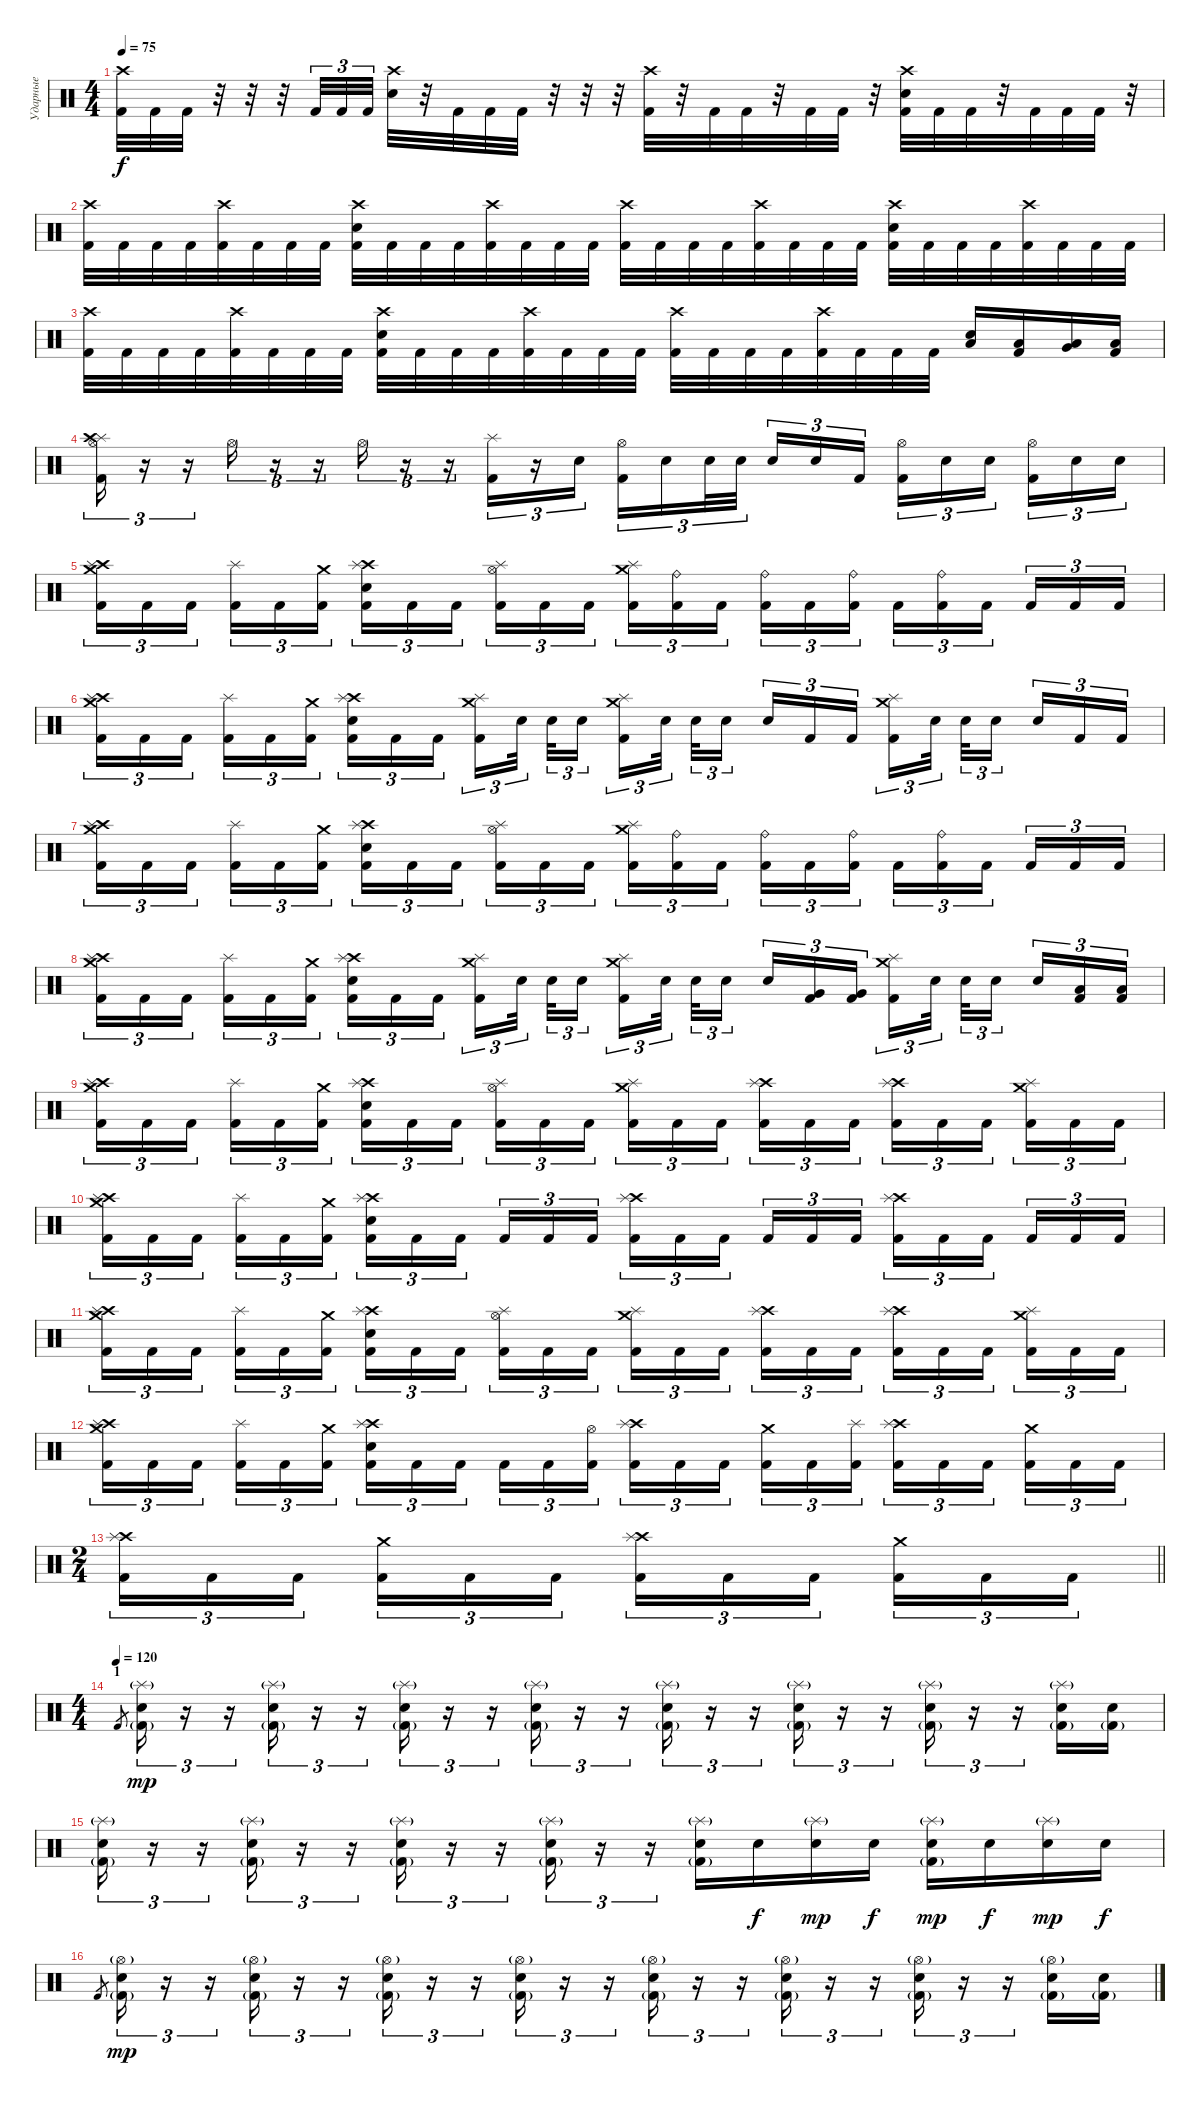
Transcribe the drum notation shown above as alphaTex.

\track ("Ударные" "Ударные") {instrument percussion}
\staff {score}
\articulation defaults
\ts (4 4)
\tempo 75
\clef neutral
\ks c
("Crash high (hit)" "Kick (hit) 2").32{dy f} "Kick (hit) 2".32 "Kick (hit) 2".32 r.32 r.32 r.32 "Kick (hit) 2".32{tu (3 2)} "Kick (hit) 2".32{tu (3 2)} "Kick (hit) 2".32{tu (3 2)} ("Crash high (hit)" "Electric Snare (hit)").32 r.32 "Kick (hit) 2".32 "Kick (hit) 2".32 "Kick (hit) 2".32 r.32 r.32 r.32 ("Crash high (hit)" "Kick (hit) 2").32 r.32 "Kick (hit) 2".32 "Kick (hit) 2".32 r.32 "Kick (hit) 2".32 "Kick (hit) 2".32 r.32 ("Crash high (hit)" "Electric Snare (hit)" "Kick (hit) 2").32 "Kick (hit) 2".32 "Kick (hit) 2".32 r.32 "Kick (hit) 2".32 "Kick (hit) 2".32 "Kick (hit) 2".32 r.32 |
("Crash high (hit)" "Kick (hit) 2").32 "Kick (hit) 2".32 "Kick (hit) 2".32 "Kick (hit) 2".32 ("Crash high (hit)" "Kick (hit) 2").32 "Kick (hit) 2".32 "Kick (hit) 2".32 "Kick (hit) 2".32 ("Crash high (hit)" "Electric Snare (hit)" "Kick (hit) 2").32 "Kick (hit) 2".32 "Kick (hit) 2".32 "Kick (hit) 2".32 ("Crash high (hit)" "Kick (hit) 2").32 "Kick (hit) 2".32 "Kick (hit) 2".32 "Kick (hit) 2".32 ("Crash high (hit)" "Kick (hit) 2").32 "Kick (hit) 2".32 "Kick (hit) 2".32 "Kick (hit) 2".32 ("Crash high (hit)" "Kick (hit) 2").32 "Kick (hit) 2".32 "Kick (hit) 2".32 "Kick (hit) 2".32 ("Crash high (hit)" "Electric Snare (hit)" "Kick (hit) 2").32 "Kick (hit) 2".32 "Kick (hit) 2".32 "Kick (hit) 2".32 ("Crash high (hit)" "Kick (hit) 2").32 "Kick (hit) 2".32 "Kick (hit) 2".32 "Kick (hit) 2".32 |
("Crash high (hit)" "Kick (hit) 2").32 "Kick (hit) 2".32 "Kick (hit) 2".32 "Kick (hit) 2".32 ("Crash high (hit)" "Kick (hit) 2").32 "Kick (hit) 2".32 "Kick (hit) 2".32 "Kick (hit) 2".32 ("Crash high (hit)" "Electric Snare (hit)" "Kick (hit) 2").32 "Kick (hit) 2".32 "Kick (hit) 2".32 "Kick (hit) 2".32 ("Crash high (hit)" "Kick (hit) 2").32 "Kick (hit) 2".32 "Kick (hit) 2".32 "Kick (hit) 2".32 ("Crash high (hit)" "Kick (hit) 2").32 "Kick (hit) 2".32 "Kick (hit) 2".32 "Kick (hit) 2".32 ("Crash high (hit)" "Kick (hit) 2").32 "Kick (hit) 2".32 "Kick (hit) 2".32 "Kick (hit) 2".32 ("Low Tom (hit)" "Electric Snare (hit)").16 ("Low Tom (hit)" "Kick (hit) 2").16 ("Very Low Tom (hit)" "Low Floor Tom (hit)").16 ("Low Floor Tom (hit)" "Kick (hit) 2").16 |
("Splash (hit)" "Crash high (hit)" "Hi-Hat (open)" "Kick (hit) 2").16{tu (3 2)} r.16{tu (3 2)} r.16{tu (3 2)} "Hi-Hat (open)".16{tu (3 2)} r.16{tu (3 2)} r.16{tu (3 2)} "Hi-Hat (open)".16{tu (3 2)} r.16{tu (3 2)} r.16{tu (3 2)} ("Splash (hit)" "Kick (hit) 2").16{tu (3 2)} r.16{tu (3 2)} "Electric Snare (hit)".16{tu (3 2)} ("Hi-Hat (open)" "Kick (hit) 2").16{tu (3 2)} "Electric Snare (hit)".16{tu (3 2)} "Electric Snare (hit)".32{tu (3 2)} "Electric Snare (hit)".32{tu (3 2) beam splitsecondary} "Electric Snare (hit)".16{tu (3 2)} "Electric Snare (hit)".16{tu (3 2)} "Kick (hit) 2".16{tu (3 2)} ("Hi-Hat (open)" "Kick (hit) 2").16{tu (3 2)} "Electric Snare (hit)".16{tu (3 2)} "Electric Snare (hit)".16{tu (3 2) beam splitsecondary} ("Hi-Hat (open)" "Kick (hit) 2").16{tu (3 2)} "Electric Snare (hit)".16{tu (3 2)} "Electric Snare (hit)".16{tu (3 2)} |
("Crash high (hit)" "Splash (hit)" "Crash medium (hit)" "Kick (hit) 2").16{tu (3 2)} "Kick (hit) 2".16{tu (3 2)} "Kick (hit) 2".16{tu (3 2) beam splitsecondary} ("Splash (hit)" "Kick (hit) 2").16{tu (3 2)} "Kick (hit) 2".16{tu (3 2)} ("Crash medium (hit)" "Kick (hit) 2").16{tu (3 2)} ("Crash high (hit)" "Splash (hit)" "Electric Snare (hit)" "Kick (hit) 2").16{tu (3 2)} "Kick (hit) 2".16{tu (3 2)} "Kick (hit) 2".16{tu (3 2) beam splitsecondary} ("Hi-Hat (open)" "Splash (hit)" "Kick (hit) 2").16{tu (3 2)} "Kick (hit) 2".16{tu (3 2)} "Kick (hit) 2".16{tu (3 2)} ("Splash (hit)" "Crash medium (hit)" "Kick (hit) 2").16{tu (3 2)} ("Ride (bell)" "Kick (hit) 2").16{tu (3 2)} "Kick (hit) 2".16{tu (3 2) beam splitsecondary} ("Ride (bell)" "Kick (hit) 2").16{tu (3 2)} "Kick (hit) 2".16{tu (3 2)} ("Ride (bell)" "Kick (hit) 2").16{tu (3 2)} "Kick (hit) 2".16{tu (3 2)} ("Ride (bell)" "Kick (hit) 2").16{tu (3 2)} "Kick (hit) 2".16{tu (3 2) beam splitsecondary} "Kick (hit) 2".16{tu (3 2)} "Kick (hit) 2".16{tu (3 2)} "Kick (hit) 2".16{tu (3 2)} |
("Crash high (hit)" "Splash (hit)" "Crash medium (hit)" "Kick (hit) 2").16{tu (3 2)} "Kick (hit) 2".16{tu (3 2)} "Kick (hit) 2".16{tu (3 2) beam splitsecondary} ("Splash (hit)" "Kick (hit) 2").16{tu (3 2)} "Kick (hit) 2".16{tu (3 2)} ("Crash medium (hit)" "Kick (hit) 2").16{tu (3 2)} ("Crash high (hit)" "Splash (hit)" "Electric Snare (hit)" "Kick (hit) 2").16{tu (3 2)} "Kick (hit) 2".16{tu (3 2)} "Kick (hit) 2".16{tu (3 2) beam splitsecondary} ("Crash medium (hit)" "Splash (hit)" "Kick (hit) 2").16{tu (3 2)} "Electric Snare (hit)".32{tu (3 2) beam splitsecondary} "Electric Snare (hit)".32{tu (3 2)} "Electric Snare (hit)".16{tu (3 2)} ("Splash (hit)" "Crash medium (hit)" "Kick (hit) 2").16{tu (3 2)} "Electric Snare (hit)".32{tu (3 2) beam splitsecondary} "Electric Snare (hit)".32{tu (3 2)} "Electric Snare (hit)".16{tu (3 2) beam splitsecondary} "Electric Snare (hit)".16{tu (3 2)} "Kick (hit) 2".16{tu (3 2)} "Kick (hit) 2".16{tu (3 2)} ("Splash (hit)" "Crash medium (hit)" "Kick (hit) 2").16{tu (3 2)} "Electric Snare (hit)".32{tu (3 2) beam splitsecondary} "Electric Snare (hit)".32{tu (3 2)} "Electric Snare (hit)".16{tu (3 2) beam splitsecondary} "Electric Snare (hit)".16{tu (3 2)} "Kick (hit) 2".16{tu (3 2)} "Kick (hit) 2".16{tu (3 2)} |
("Crash high (hit)" "Splash (hit)" "Crash medium (hit)" "Kick (hit) 2").16{tu (3 2)} "Kick (hit) 2".16{tu (3 2)} "Kick (hit) 2".16{tu (3 2) beam splitsecondary} ("Splash (hit)" "Kick (hit) 2").16{tu (3 2)} "Kick (hit) 2".16{tu (3 2)} ("Crash medium (hit)" "Kick (hit) 2").16{tu (3 2)} ("Crash high (hit)" "Splash (hit)" "Electric Snare (hit)" "Kick (hit) 2").16{tu (3 2)} "Kick (hit) 2".16{tu (3 2)} "Kick (hit) 2".16{tu (3 2) beam splitsecondary} ("Hi-Hat (open)" "Splash (hit)" "Kick (hit) 2").16{tu (3 2)} "Kick (hit) 2".16{tu (3 2)} "Kick (hit) 2".16{tu (3 2)} ("Splash (hit)" "Crash medium (hit)" "Kick (hit) 2").16{tu (3 2)} ("Ride (bell)" "Kick (hit) 2").16{tu (3 2)} "Kick (hit) 2".16{tu (3 2) beam splitsecondary} ("Ride (bell)" "Kick (hit) 2").16{tu (3 2)} "Kick (hit) 2".16{tu (3 2)} ("Ride (bell)" "Kick (hit) 2").16{tu (3 2)} "Kick (hit) 2".16{tu (3 2)} ("Ride (bell)" "Kick (hit) 2").16{tu (3 2)} "Kick (hit) 2".16{tu (3 2) beam splitsecondary} "Kick (hit) 2".16{tu (3 2)} "Kick (hit) 2".16{tu (3 2)} "Kick (hit) 2".16{tu (3 2)} |
("Crash high (hit)" "Splash (hit)" "Crash medium (hit)" "Kick (hit) 2").16{tu (3 2)} "Kick (hit) 2".16{tu (3 2)} "Kick (hit) 2".16{tu (3 2) beam splitsecondary} ("Splash (hit)" "Kick (hit) 2").16{tu (3 2)} "Kick (hit) 2".16{tu (3 2)} ("Crash medium (hit)" "Kick (hit) 2").16{tu (3 2)} ("Crash high (hit)" "Splash (hit)" "Electric Snare (hit)" "Kick (hit) 2").16{tu (3 2)} "Kick (hit) 2".16{tu (3 2)} "Kick (hit) 2".16{tu (3 2) beam splitsecondary} ("Crash medium (hit)" "Splash (hit)" "Kick (hit) 2").16{tu (3 2)} "Electric Snare (hit)".32{tu (3 2) beam splitsecondary} "Electric Snare (hit)".32{tu (3 2)} "Electric Snare (hit)".16{tu (3 2)} ("Splash (hit)" "Crash medium (hit)" "Kick (hit) 2").16{tu (3 2)} "Electric Snare (hit)".32{tu (3 2) beam splitsecondary} "Electric Snare (hit)".32{tu (3 2)} "Electric Snare (hit)".16{tu (3 2) beam splitsecondary} "Electric Snare (hit)".16{tu (3 2)} ("Kick (hit) 2" "Very Low Tom (hit)").16{tu (3 2)} ("Kick (hit) 2" "Very Low Tom (hit)").16{tu (3 2)} ("Splash (hit)" "Crash medium (hit)" "Kick (hit) 2").16{tu (3 2)} "Electric Snare (hit)".32{tu (3 2) beam splitsecondary} "Electric Snare (hit)".32{tu (3 2)} "Electric Snare (hit)".16{tu (3 2) beam splitsecondary} "Electric Snare (hit)".16{tu (3 2)} ("Low Floor Tom (hit)" "Kick (hit) 2").16{tu (3 2)} ("Low Floor Tom (hit)" "Kick (hit) 2").16{tu (3 2)} |
("Crash high (hit)" "Splash (hit)" "Crash medium (hit)" "Kick (hit) 2").16{tu (3 2)} "Kick (hit) 2".16{tu (3 2)} "Kick (hit) 2".16{tu (3 2) beam splitsecondary} ("Splash (hit)" "Kick (hit) 2").16{tu (3 2)} "Kick (hit) 2".16{tu (3 2)} ("Crash medium (hit)" "Kick (hit) 2").16{tu (3 2)} ("Crash high (hit)" "Splash (hit)" "Electric Snare (hit)" "Kick (hit) 2").16{tu (3 2)} "Kick (hit) 2".16{tu (3 2)} "Kick (hit) 2".16{tu (3 2) beam splitsecondary} ("Hi-Hat (open)" "Splash (hit)" "Kick (hit) 2").16{tu (3 2)} "Kick (hit) 2".16{tu (3 2)} "Kick (hit) 2".16{tu (3 2)} ("Splash (hit)" "Crash medium (hit)" "Kick (hit) 2").16{tu (3 2)} "Kick (hit) 2".16{tu (3 2)} "Kick (hit) 2".16{tu (3 2) beam splitsecondary} ("Crash high (hit)" "Splash (hit)" "Kick (hit) 2").16{tu (3 2)} "Kick (hit) 2".16{tu (3 2)} "Kick (hit) 2".16{tu (3 2)} ("Crash high (hit)" "Splash (hit)" "Kick (hit) 2").16{tu (3 2)} "Kick (hit) 2".16{tu (3 2)} "Kick (hit) 2".16{tu (3 2) beam splitsecondary} ("Splash (hit)" "Crash medium (hit)" "Kick (hit) 2").16{tu (3 2)} "Kick (hit) 2".16{tu (3 2)} "Kick (hit) 2".16{tu (3 2)} |
("Crash high (hit)" "Splash (hit)" "Crash medium (hit)" "Kick (hit) 2").16{tu (3 2)} "Kick (hit) 2".16{tu (3 2)} "Kick (hit) 2".16{tu (3 2) beam splitsecondary} ("Splash (hit)" "Kick (hit) 2").16{tu (3 2)} "Kick (hit) 2".16{tu (3 2)} ("Crash medium (hit)" "Kick (hit) 2").16{tu (3 2)} ("Crash high (hit)" "Splash (hit)" "Electric Snare (hit)" "Kick (hit) 2").16{tu (3 2)} "Kick (hit) 2".16{tu (3 2)} "Kick (hit) 2".16{tu (3 2) beam splitsecondary} "Kick (hit) 2".16{tu (3 2)} "Kick (hit) 2".16{tu (3 2)} "Kick (hit) 2".16{tu (3 2)} ("Crash high (hit)" "Splash (hit)" "Kick (hit) 2").16{tu (3 2)} "Kick (hit) 2".16{tu (3 2)} "Kick (hit) 2".16{tu (3 2) beam splitsecondary} "Kick (hit) 2".16{tu (3 2)} "Kick (hit) 2".16{tu (3 2)} "Kick (hit) 2".16{tu (3 2)} ("Crash high (hit)" "Splash (hit)" "Kick (hit) 2").16{tu (3 2)} "Kick (hit) 2".16{tu (3 2)} "Kick (hit) 2".16{tu (3 2) beam splitsecondary} "Kick (hit) 2".16{tu (3 2)} "Kick (hit) 2".16{tu (3 2)} "Kick (hit) 2".16{tu (3 2)} |
("Crash high (hit)" "Splash (hit)" "Crash medium (hit)" "Kick (hit) 2").16{tu (3 2)} "Kick (hit) 2".16{tu (3 2)} "Kick (hit) 2".16{tu (3 2) beam splitsecondary} ("Splash (hit)" "Kick (hit) 2").16{tu (3 2)} "Kick (hit) 2".16{tu (3 2)} ("Crash medium (hit)" "Kick (hit) 2").16{tu (3 2)} ("Crash high (hit)" "Splash (hit)" "Electric Snare (hit)" "Kick (hit) 2").16{tu (3 2)} "Kick (hit) 2".16{tu (3 2)} "Kick (hit) 2".16{tu (3 2) beam splitsecondary} ("Hi-Hat (open)" "Splash (hit)" "Kick (hit) 2").16{tu (3 2)} "Kick (hit) 2".16{tu (3 2)} "Kick (hit) 2".16{tu (3 2)} ("Splash (hit)" "Crash medium (hit)" "Kick (hit) 2").16{tu (3 2)} "Kick (hit) 2".16{tu (3 2)} "Kick (hit) 2".16{tu (3 2) beam splitsecondary} ("Crash high (hit)" "Splash (hit)" "Kick (hit) 2").16{tu (3 2)} "Kick (hit) 2".16{tu (3 2)} "Kick (hit) 2".16{tu (3 2)} ("Crash high (hit)" "Splash (hit)" "Kick (hit) 2").16{tu (3 2)} "Kick (hit) 2".16{tu (3 2)} "Kick (hit) 2".16{tu (3 2) beam splitsecondary} ("Splash (hit)" "Crash medium (hit)" "Kick (hit) 2").16{tu (3 2)} "Kick (hit) 2".16{tu (3 2)} "Kick (hit) 2".16{tu (3 2)} |
("Crash high (hit)" "Splash (hit)" "Crash medium (hit)" "Kick (hit) 2").16{tu (3 2)} "Kick (hit) 2".16{tu (3 2)} "Kick (hit) 2".16{tu (3 2) beam splitsecondary} ("Splash (hit)" "Kick (hit) 2").16{tu (3 2)} "Kick (hit) 2".16{tu (3 2)} ("Crash medium (hit)" "Kick (hit) 2").16{tu (3 2)} ("Crash high (hit)" "Splash (hit)" "Electric Snare (hit)" "Kick (hit) 2").16{tu (3 2)} "Kick (hit) 2".16{tu (3 2)} "Kick (hit) 2".16{tu (3 2) beam splitsecondary} "Kick (hit) 2".16{tu (3 2)} "Kick (hit) 2".16{tu (3 2)} ("Hi-Hat (open)" "Kick (hit) 2").16{tu (3 2)} ("Crash high (hit)" "Splash (hit)" "Kick (hit) 2").16{tu (3 2)} "Kick (hit) 2".16{tu (3 2)} "Kick (hit) 2".16{tu (3 2) beam splitsecondary} ("Crash medium (hit)" "Kick (hit) 2").16{tu (3 2)} "Kick (hit) 2".16{tu (3 2)} ("Splash (hit)" "Kick (hit) 2").16{tu (3 2)} ("Crash high (hit)" "Splash (hit)" "Kick (hit) 2").16{tu (3 2)} "Kick (hit) 2".16{tu (3 2)} "Kick (hit) 2".16{tu (3 2) beam splitsecondary} ("Crash medium (hit)" "Kick (hit) 2").16{tu (3 2)} "Kick (hit) 2".16{tu (3 2)} "Kick (hit) 2".16{tu (3 2)} |
\ts (2 4)
\barLineRight lightlight
("Crash high (hit)" "Splash (hit)" "Kick (hit) 2").16{tu (3 2)} "Kick (hit) 2".16{tu (3 2)} "Kick (hit) 2".16{tu (3 2) beam splitsecondary} ("Crash medium (hit)" "Kick (hit) 2").16{tu (3 2)} "Kick (hit) 2".16{tu (3 2)} "Kick (hit) 2".16{tu (3 2)} ("Crash high (hit)" "Splash (hit)" "Kick (hit) 2").16{tu (3 2)} "Kick (hit) 2".16{tu (3 2)} "Kick (hit) 2".16{tu (3 2) beam splitsecondary} ("Crash medium (hit)" "Kick (hit) 2").16{tu (3 2)} "Kick (hit) 2".16{tu (3 2)} "Kick (hit) 2".16{tu (3 2)} |
\ts (4 4)
\section ("" "1")
\tempo (120)
"Kick (hit) 2"{x}.8{gr} ("Splash (hit)"{g} "Electric Snare (hit)" "Kick (hit) 2"{g}).16{tu (3 2) dy mp} r.16{tu (3 2)} r.16{tu (3 2)} ("Splash (hit)"{g} "Electric Snare (hit)" "Kick (hit) 2"{g}).16{tu (3 2)} r.16{tu (3 2)} r.16{tu (3 2)} ("Splash (hit)"{g} "Electric Snare (hit)" "Kick (hit) 2"{g}).16{tu (3 2)} r.16{tu (3 2)} r.16{tu (3 2)} ("Splash (hit)"{g} "Electric Snare (hit)" "Kick (hit) 2"{g}).16{tu (3 2)} r.16{tu (3 2)} r.16{tu (3 2)} ("Splash (hit)"{g} "Electric Snare (hit)" "Kick (hit) 2"{g}).16{tu (3 2)} r.16{tu (3 2)} r.16{tu (3 2)} ("Splash (hit)"{g} "Electric Snare (hit)" "Kick (hit) 2"{g}).16{tu (3 2)} r.16{tu (3 2)} r.16{tu (3 2)} ("Splash (hit)"{g} "Electric Snare (hit)" "Kick (hit) 2"{g}).16{tu (3 2)} r.16{tu (3 2)} r.16{tu (3 2)} ("Splash (hit)"{g} "Electric Snare (hit)" "Kick (hit) 2"{g}).16 ("Electric Snare (hit)" "Kick (hit) 2"{g}).16 |
("Splash (hit)"{g} "Electric Snare (hit)" "Kick (hit) 2"{g}).16{tu (3 2)} r.16{tu (3 2)} r.16{tu (3 2)} ("Splash (hit)"{g} "Electric Snare (hit)" "Kick (hit) 2"{g}).16{tu (3 2)} r.16{tu (3 2)} r.16{tu (3 2)} ("Splash (hit)"{g} "Electric Snare (hit)" "Kick (hit) 2"{g}).16{tu (3 2)} r.16{tu (3 2)} r.16{tu (3 2)} ("Splash (hit)"{g} "Electric Snare (hit)" "Kick (hit) 2"{g}).16{tu (3 2)} r.16{tu (3 2)} r.16{tu (3 2)} ("Splash (hit)"{g} "Electric Snare (hit)" "Kick (hit) 2"{g}).16 "Electric Snare (hit)".16{dy f} ("Splash (hit)"{g} "Electric Snare (hit)").16{dy mp} "Electric Snare (hit)".16{dy f} ("Splash (hit)"{g} "Electric Snare (hit)" "Kick (hit) 2"{g}).16{dy mp} "Electric Snare (hit)".16{dy f} ("Splash (hit)"{g} "Electric Snare (hit)").16{dy mp} "Electric Snare (hit)".16{dy f} |
"Kick (hit) 2"{x}.8{gr} ("Hi-Hat (open)"{g} "Electric Snare (hit)" "Kick (hit) 2"{g}).16{tu (3 2) dy mp} r.16{tu (3 2)} r.16{tu (3 2)} ("Hi-Hat (open)"{g} "Electric Snare (hit)" "Kick (hit) 2"{g}).16{tu (3 2)} r.16{tu (3 2)} r.16{tu (3 2)} ("Hi-Hat (open)"{g} "Electric Snare (hit)" "Kick (hit) 2"{g}).16{tu (3 2)} r.16{tu (3 2)} r.16{tu (3 2)} ("Hi-Hat (open)"{g} "Electric Snare (hit)" "Kick (hit) 2"{g}).16{tu (3 2)} r.16{tu (3 2)} r.16{tu (3 2)} ("Hi-Hat (open)"{g} "Electric Snare (hit)" "Kick (hit) 2"{g}).16{tu (3 2)} r.16{tu (3 2)} r.16{tu (3 2)} ("Hi-Hat (open)"{g} "Electric Snare (hit)" "Kick (hit) 2"{g}).16{tu (3 2)} r.16{tu (3 2)} r.16{tu (3 2)} ("Hi-Hat (open)"{g} "Electric Snare (hit)" "Kick (hit) 2"{g}).16{tu (3 2)} r.16{tu (3 2)} r.16{tu (3 2)} ("Hi-Hat (open)"{g} "Electric Snare (hit)" "Kick (hit) 2"{g}).16 ("Electric Snare (hit)" "Kick (hit) 2"{g}).16
